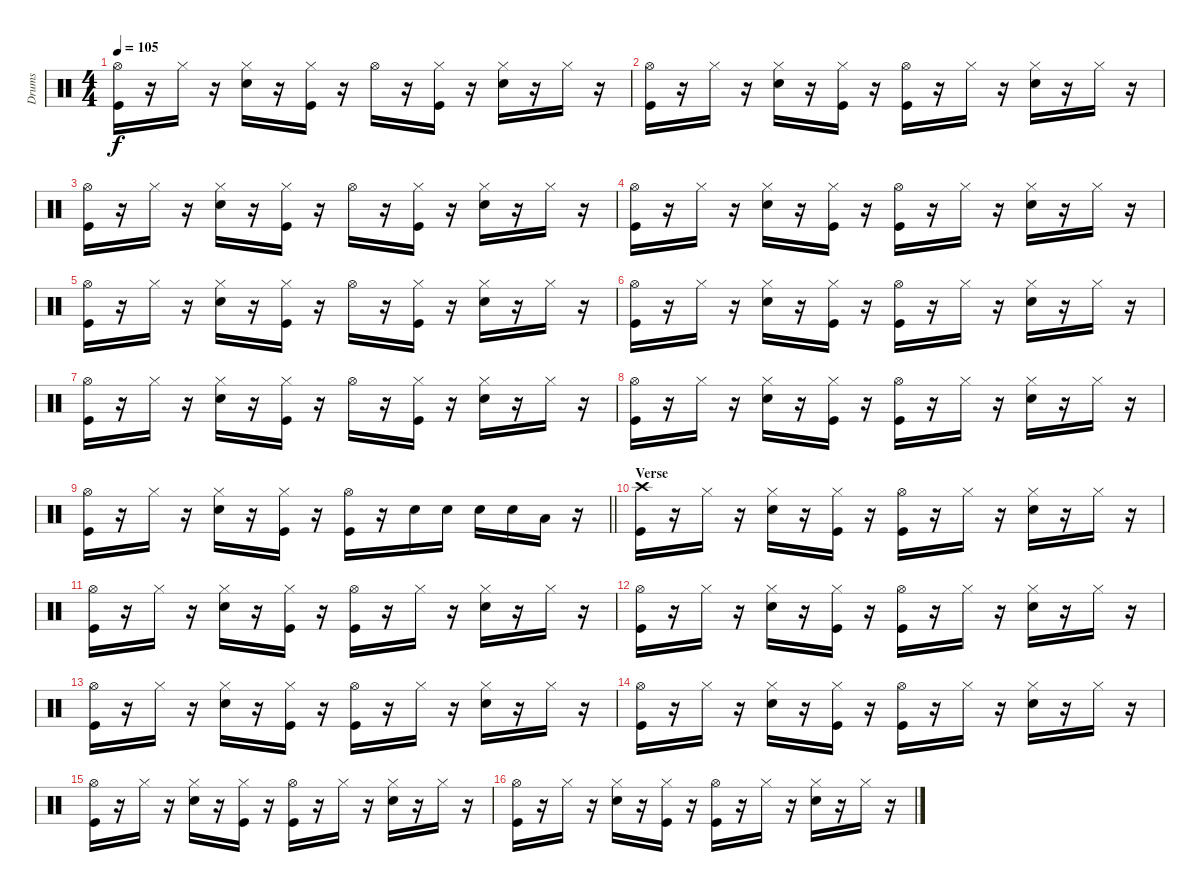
\track ("Drums" "Drums") {instrument percussion}
\staff {score}
\articulation defaults
\ts (4 4)
\tempo 105
\clef neutral
\ks c
("Hi-Hat (open)" "Kick (hit)").16{dy f} r.16 "Hi-Hat (closed)".16 r.16 ("Hi-Hat (closed)" "Snare (hit) 2").16 r.16 ("Hi-Hat (closed)" "Kick (hit)").16 r.16 "Hi-Hat (open)".16 r.16 ("Hi-Hat (closed)" "Kick (hit)").16 r.16 ("Hi-Hat (closed)" "Snare (hit) 2").16 r.16 "Hi-Hat (closed)".16 r.16 |
("Hi-Hat (open)" "Kick (hit)").16 r.16 "Hi-Hat (closed)".16 r.16 ("Hi-Hat (closed)" "Snare (hit) 2").16 r.16 ("Hi-Hat (closed)" "Kick (hit)").16 r.16 ("Hi-Hat (open)" "Kick (hit)").16 r.16 "Hi-Hat (closed)".16 r.16 ("Hi-Hat (closed)" "Snare (hit) 2").16 r.16 "Hi-Hat (closed)".16 r.16 |
("Hi-Hat (open)" "Kick (hit)").16 r.16 "Hi-Hat (closed)".16 r.16 ("Hi-Hat (closed)" "Snare (hit) 2").16 r.16 ("Hi-Hat (closed)" "Kick (hit)").16 r.16 "Hi-Hat (open)".16 r.16 ("Hi-Hat (closed)" "Kick (hit)").16 r.16 ("Hi-Hat (closed)" "Snare (hit) 2").16 r.16 "Hi-Hat (closed)".16 r.16 |
("Hi-Hat (open)" "Kick (hit)").16 r.16 "Hi-Hat (closed)".16 r.16 ("Hi-Hat (closed)" "Snare (hit) 2").16 r.16 ("Hi-Hat (closed)" "Kick (hit)").16 r.16 ("Hi-Hat (open)" "Kick (hit)").16 r.16 "Hi-Hat (closed)".16 r.16 ("Hi-Hat (closed)" "Snare (hit) 2").16 r.16 "Hi-Hat (closed)".16 r.16 |
("Hi-Hat (open)" "Kick (hit)").16 r.16 "Hi-Hat (closed)".16 r.16 ("Hi-Hat (closed)" "Snare (hit) 2").16 r.16 ("Hi-Hat (closed)" "Kick (hit)").16 r.16 "Hi-Hat (open)".16 r.16 ("Hi-Hat (closed)" "Kick (hit)").16 r.16 ("Hi-Hat (closed)" "Snare (hit) 2").16 r.16 "Hi-Hat (closed)".16 r.16 |
("Hi-Hat (open)" "Kick (hit)").16 r.16 "Hi-Hat (closed)".16 r.16 ("Hi-Hat (closed)" "Snare (hit) 2").16 r.16 ("Hi-Hat (closed)" "Kick (hit)").16 r.16 ("Hi-Hat (open)" "Kick (hit)").16 r.16 "Hi-Hat (closed)".16 r.16 ("Hi-Hat (closed)" "Snare (hit) 2").16 r.16 "Hi-Hat (closed)".16 r.16 |
("Hi-Hat (open)" "Kick (hit)").16 r.16 "Hi-Hat (closed)".16 r.16 ("Hi-Hat (closed)" "Snare (hit) 2").16 r.16 ("Hi-Hat (closed)" "Kick (hit)").16 r.16 "Hi-Hat (open)".16 r.16 ("Hi-Hat (closed)" "Kick (hit)").16 r.16 ("Hi-Hat (closed)" "Snare (hit) 2").16 r.16 "Hi-Hat (closed)".16 r.16 |
("Hi-Hat (open)" "Kick (hit)").16 r.16 "Hi-Hat (closed)".16 r.16 ("Hi-Hat (closed)" "Snare (hit) 2").16 r.16 ("Hi-Hat (closed)" "Kick (hit)").16 r.16 ("Hi-Hat (open)" "Kick (hit)").16 r.16 "Hi-Hat (closed)".16 r.16 ("Hi-Hat (closed)" "Snare (hit) 2").16 r.16 "Hi-Hat (closed)".16 r.16 |
\barLineRight lightlight
("Hi-Hat (open)" "Kick (hit)").16 r.16 "Hi-Hat (closed)".16 r.16 ("Hi-Hat (closed)" "Snare (hit) 2").16 r.16 ("Hi-Hat (closed)" "Kick (hit)").16 r.16 ("Hi-Hat (open)" "Kick (hit)").16 r.16 "Snare (hit) 2".16 "Snare (hit) 2".16 "Snare (hit) 2".16 "Snare (hit) 2".16 "Low Tom (hit)".16 r.16 |
\section ("" "Verse")
("Crash high (hit)" "Kick (hit)").16 r.16 "Hi-Hat (closed)".16 r.16 ("Hi-Hat (closed)" "Snare (hit) 2").16 r.16 ("Hi-Hat (closed)" "Kick (hit)").16 r.16 ("Hi-Hat (open)" "Kick (hit)").16 r.16 "Hi-Hat (closed)".16 r.16 ("Hi-Hat (closed)" "Snare (hit) 2").16 r.16 "Hi-Hat (closed)".16 r.16 |
("Hi-Hat (open)" "Kick (hit)").16 r.16 "Hi-Hat (closed)".16 r.16 ("Hi-Hat (closed)" "Snare (hit) 2").16 r.16 ("Hi-Hat (closed)" "Kick (hit)").16 r.16 ("Hi-Hat (open)" "Kick (hit)").16 r.16 "Hi-Hat (closed)".16 r.16 ("Hi-Hat (closed)" "Snare (hit) 2").16 r.16 "Hi-Hat (closed)".16 r.16 |
("Hi-Hat (open)" "Kick (hit)").16 r.16 "Hi-Hat (closed)".16 r.16 ("Hi-Hat (closed)" "Snare (hit) 2").16 r.16 ("Hi-Hat (closed)" "Kick (hit)").16 r.16 ("Hi-Hat (open)" "Kick (hit)").16 r.16 "Hi-Hat (closed)".16 r.16 ("Hi-Hat (closed)" "Snare (hit) 2").16 r.16 "Hi-Hat (closed)".16 r.16 |
("Hi-Hat (open)" "Kick (hit)").16 r.16 "Hi-Hat (closed)".16 r.16 ("Hi-Hat (closed)" "Snare (hit) 2").16 r.16 ("Hi-Hat (closed)" "Kick (hit)").16 r.16 ("Hi-Hat (open)" "Kick (hit)").16 r.16 "Hi-Hat (closed)".16 r.16 ("Hi-Hat (closed)" "Snare (hit) 2").16 r.16 "Hi-Hat (closed)".16 r.16 |
("Hi-Hat (open)" "Kick (hit)").16 r.16 "Hi-Hat (closed)".16 r.16 ("Hi-Hat (closed)" "Snare (hit) 2").16 r.16 ("Hi-Hat (closed)" "Kick (hit)").16 r.16 ("Hi-Hat (open)" "Kick (hit)").16 r.16 "Hi-Hat (closed)".16 r.16 ("Hi-Hat (closed)" "Snare (hit) 2").16 r.16 "Hi-Hat (closed)".16 r.16 |
("Hi-Hat (open)" "Kick (hit)").16 r.16 "Hi-Hat (closed)".16 r.16 ("Hi-Hat (closed)" "Snare (hit) 2").16 r.16 ("Hi-Hat (closed)" "Kick (hit)").16 r.16 ("Hi-Hat (open)" "Kick (hit)").16 r.16 "Hi-Hat (closed)".16 r.16 ("Hi-Hat (closed)" "Snare (hit) 2").16 r.16 "Hi-Hat (closed)".16 r.16 |
("Hi-Hat (open)" "Kick (hit)").16 r.16 "Hi-Hat (closed)".16 r.16 ("Hi-Hat (closed)" "Snare (hit) 2").16 r.16 ("Hi-Hat (closed)" "Kick (hit)").16 r.16 ("Hi-Hat (open)" "Kick (hit)").16 r.16 "Hi-Hat (closed)".16 r.16 ("Hi-Hat (closed)" "Snare (hit) 2").16 r.16 "Hi-Hat (closed)".16 r.16
